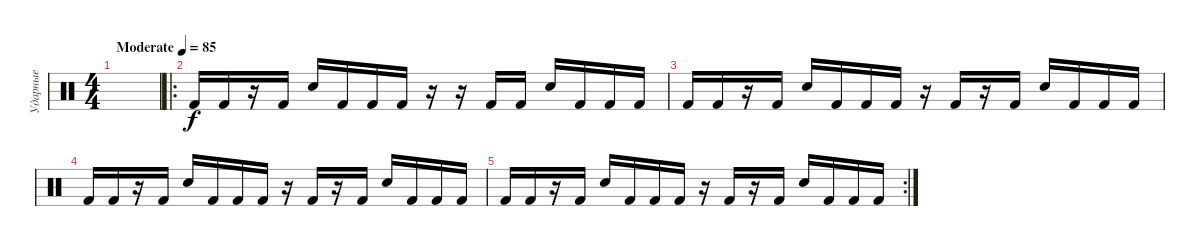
\track ("Ударные" "Ударные") {instrument percussion}
\staff {score}
\articulation defaults
\ts (4 4)
\tempo (85 "Moderate")
\clef neutral
\ks c
|
\ro "Kick (hit) 2".16 "Kick (hit) 2".16
r.16 "Kick (hit) 2".16 "Snare (hit) 2".16 "Kick (hit) 2".16 "Kick (hit) 2".16 "Kick (hit) 2".16 r.16 r.16 "Kick (hit) 2".16 "Kick (hit) 2".16 "Snare (hit) 2".16 "Kick (hit) 2".16 "Kick (hit) 2".16 "Kick (hit) 2".16 |
"Kick (hit) 2".16 "Kick (hit) 2".16 r.16 "Kick (hit) 2".16 "Snare (hit) 2".16 "Kick (hit) 2".16 "Kick (hit) 2".16 "Kick (hit) 2".16 r.16 "Kick (hit) 2".16 r.16 "Kick (hit) 2".16 "Snare (hit) 2".16 "Kick (hit) 2".16 "Kick (hit) 2".16 "Kick (hit) 2".16 |
"Kick (hit) 2".16 "Kick (hit) 2".16 r.16 "Kick (hit) 2".16 "Snare (hit) 2".16 "Kick (hit) 2".16 "Kick (hit) 2".16 "Kick (hit) 2".16 r.16 "Kick (hit) 2".16 r.16 "Kick (hit) 2".16 "Snare (hit) 2".16 "Kick (hit) 2".16 "Kick (hit) 2".16 "Kick (hit) 2".16 |
\rc 2 "Kick (hit) 2".16 "Kick (hit) 2".16
r.16 "Kick (hit) 2".16 "Snare (hit) 2".16 "Kick (hit) 2".16 "Kick (hit) 2".16 "Kick (hit) 2".16 r.16 "Kick (hit) 2".16 r.16 "Kick (hit) 2".16 "Snare (hit) 2".16 "Kick (hit) 2".16 "Kick (hit) 2".16 "Kick (hit) 2".16
